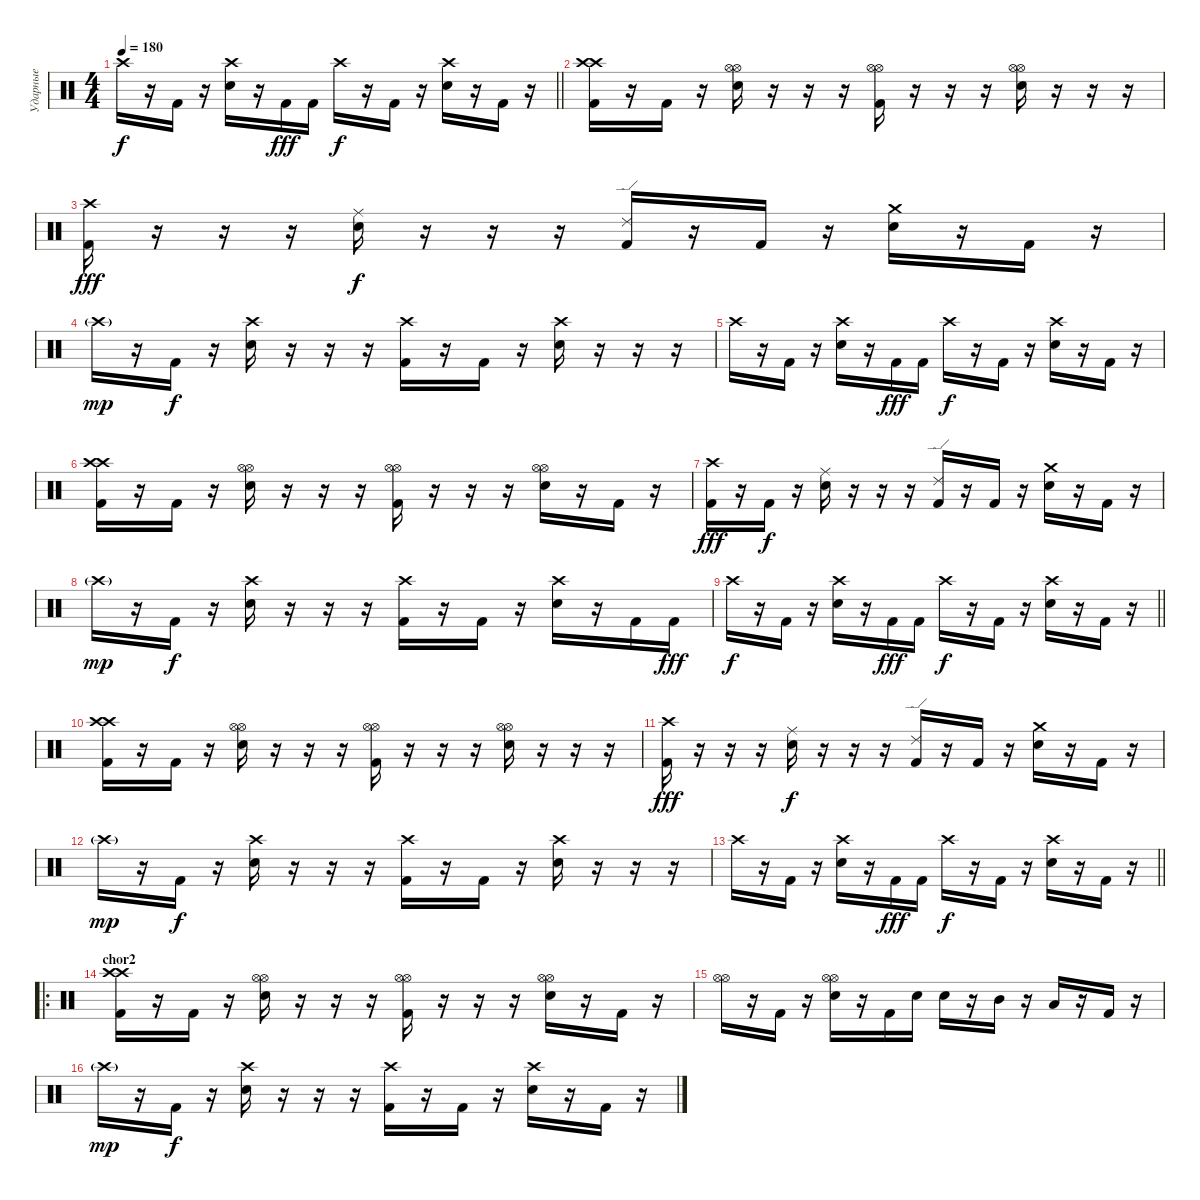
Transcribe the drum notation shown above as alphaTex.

\track ("Ударные" "Ударные") {instrument percussion}
\staff {score}
\articulation defaults
\ts (4 4)
\tempo 180
\clef neutral
\barLineRight lightlight
\ks c "Crash high (hit)".16{dy f}
r.16 "Kick (hit) 2".16 r.16 ("Crash high (hit)" "Electric Snare (hit)").16 r.16 "Kick (hit) 2".16{dy fff} "Kick (hit) 2".16 "Crash high (hit)".16{dy f} r.16 "Kick (hit) 2".16 r.16 ("Crash high (hit)" "Electric Snare (hit)").16 r.16 "Kick (hit) 2".16 r.16 |
("Crash high (hit)" "Crash high (hit)" "Kick (hit) 2").16 r.16 "Kick (hit) 2".16 r.16 ("Hi-Hat (open)" "Hi-Hat (open)" "Electric Snare (hit)").16 r.16 r.16 r.16 ("Hi-Hat (open)" "Hi-Hat (open)" "Kick (hit) 2").16 r.16 r.16 r.16 ("Hi-Hat (open)" "Hi-Hat (open)" "Electric Snare (hit)").16 r.16 r.16 r.16 |
("Crash high (hit)" "Kick (hit) 2").16{dy fff} r.16 r.16 r.16 ("Ride (middle)" "Electric Snare (hit)").16{dy f} r.16 r.16 r.16 ("Ride (edge) 2" "Kick (hit) 2").16 r.16 "Kick (hit) 2".16 r.16 ("Crash medium (hit)" "Electric Snare (hit)").16 r.16 "Kick (hit) 2".16 r.16 |
"Crash high (hit)"{g}.16{dy mp} r.16 "Kick (hit) 2".16{dy f} r.16 ("Crash high (hit)" "Electric Snare (hit)").16 r.16 r.16 r.16 ("Crash high (hit)" "Kick (hit) 2").16 r.16 "Kick (hit) 2".16 r.16 ("Crash high (hit)" "Electric Snare (hit)").16 r.16 r.16 r.16 |
"Crash high (hit)".16 r.16 "Kick (hit) 2".16 r.16 ("Crash high (hit)" "Electric Snare (hit)").16 r.16 "Kick (hit) 2".16{dy fff} "Kick (hit) 2".16 "Crash high (hit)".16{dy f} r.16 "Kick (hit) 2".16 r.16 ("Crash high (hit)" "Electric Snare (hit)").16 r.16 "Kick (hit) 2".16 r.16 |
("Crash high (hit)" "Crash high (hit)" "Kick (hit) 2").16 r.16 "Kick (hit) 2".16 r.16 ("Hi-Hat (open)" "Hi-Hat (open)" "Electric Snare (hit)").16 r.16 r.16 r.16 ("Hi-Hat (open)" "Hi-Hat (open)" "Kick (hit) 2").16 r.16 r.16 r.16 ("Hi-Hat (open)" "Hi-Hat (open)" "Electric Snare (hit)").16 r.16 "Kick (hit) 2".16 r.16 |
("Crash high (hit)" "Kick (hit) 2").16{dy fff} r.16 "Kick (hit) 2".16{dy f} r.16 ("Ride (middle)" "Electric Snare (hit)").16 r.16 r.16 r.16 ("Ride (edge) 2" "Kick (hit) 2").16 r.16 "Kick (hit) 2".16 r.16 ("Crash medium (hit)" "Electric Snare (hit)").16 r.16 "Kick (hit) 2".16 r.16 |
"Crash high (hit)"{g}.16{dy mp} r.16 "Kick (hit) 2".16{dy f} r.16 ("Crash high (hit)" "Electric Snare (hit)").16 r.16 r.16 r.16 ("Crash high (hit)" "Kick (hit) 2").16 r.16 "Kick (hit) 2".16 r.16 ("Crash high (hit)" "Electric Snare (hit)").16 r.16 "Kick (hit) 2".16 "Kick (hit) 2".16{dy fff} |
\barLineRight lightlight "Crash high (hit)".16{dy f}
r.16 "Kick (hit) 2".16 r.16 ("Crash high (hit)" "Electric Snare (hit)").16 r.16 "Kick (hit) 2".16{dy fff} "Kick (hit) 2".16 "Crash high (hit)".16{dy f} r.16 "Kick (hit) 2".16 r.16 ("Crash high (hit)" "Electric Snare (hit)").16 r.16 "Kick (hit) 2".16 r.16 |
("Crash high (hit)" "Crash high (hit)" "Kick (hit) 2").16 r.16 "Kick (hit) 2".16 r.16 ("Hi-Hat (open)" "Hi-Hat (open)" "Electric Snare (hit)").16 r.16 r.16 r.16 ("Hi-Hat (open)" "Hi-Hat (open)" "Kick (hit) 2").16 r.16 r.16 r.16 ("Hi-Hat (open)" "Hi-Hat (open)" "Electric Snare (hit)").16 r.16 r.16 r.16 |
("Crash high (hit)" "Kick (hit) 2").16{dy fff} r.16 r.16 r.16 ("Ride (middle)" "Electric Snare (hit)").16{dy f} r.16 r.16 r.16 ("Ride (edge) 2" "Kick (hit) 2").16 r.16 "Kick (hit) 2".16 r.16 ("Crash medium (hit)" "Electric Snare (hit)").16 r.16 "Kick (hit) 2".16 r.16 |
"Crash high (hit)"{g}.16{dy mp} r.16 "Kick (hit) 2".16{dy f} r.16 ("Crash high (hit)" "Electric Snare (hit)").16 r.16 r.16 r.16 ("Crash high (hit)" "Kick (hit) 2").16 r.16 "Kick (hit) 2".16 r.16 ("Crash high (hit)" "Electric Snare (hit)").16 r.16 r.16 r.16 |
\barLineRight lightlight "Crash high (hit)".16
r.16 "Kick (hit) 2".16 r.16 ("Crash high (hit)" "Electric Snare (hit)").16 r.16 "Kick (hit) 2".16{dy fff} "Kick (hit) 2".16 "Crash high (hit)".16{dy f} r.16 "Kick (hit) 2".16 r.16 ("Crash high (hit)" "Electric Snare (hit)").16 r.16 "Kick (hit) 2".16 r.16 |
\ro
\section ("" "chor2")
("Crash high (hit)" "Crash high (hit)" "Kick (hit) 2").16 r.16 "Kick (hit) 2".16 r.16 ("Hi-Hat (open)" "Hi-Hat (open)" "Electric Snare (hit)").16 r.16 r.16 r.16 ("Hi-Hat (open)" "Hi-Hat (open)" "Kick (hit) 2").16 r.16 r.16 r.16 ("Hi-Hat (open)" "Hi-Hat (open)" "Electric Snare (hit)").16 r.16 "Kick (hit) 2".16 r.16 |
("Hi-Hat (open)" "Hi-Hat (open)").16 r.16 "Kick (hit) 2".16 r.16 ("Hi-Hat (open)" "Hi-Hat (open)" "Electric Snare (hit)").16 r.16 "Kick (hit) 2".16 "Electric Snare (hit)".16 "Electric Snare (hit)".16 r.16 "Mid Tom (hit)".16 r.16 "Low Tom (hit)".16 r.16 "Kick (hit) 2".16 r.16 |
"Crash high (hit)"{g}.16{dy mp} r.16 "Kick (hit) 2".16{dy f} r.16 ("Crash high (hit)" "Electric Snare (hit)").16 r.16 r.16 r.16 ("Crash high (hit)" "Kick (hit) 2").16 r.16 "Kick (hit) 2".16 r.16 ("Crash high (hit)" "Electric Snare (hit)").16 r.16 "Kick (hit) 2".16 r.16
